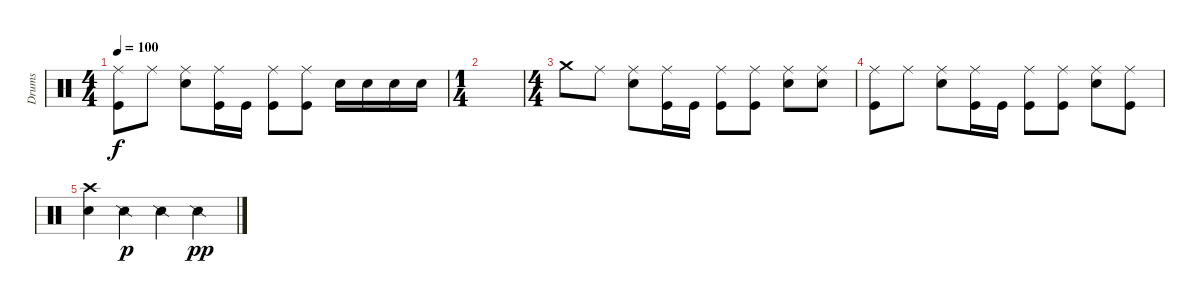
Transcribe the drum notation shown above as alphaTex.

\track ("Drums" "Drums") {instrument percussion}
\staff {score}
\articulation defaults
\ts (4 4)
\tempo 100
\clef neutral
\ks c
("Kick (hit)" "Ride (middle)").8{dy f} "Ride (middle)".8 ("Electric Snare (hit)" "Ride (middle)").8 ("Kick (hit)" "Ride (middle)").16 "Kick (hit)".16 ("Kick (hit)" "Ride (middle)").8 ("Kick (hit)" "Ride (middle)").8 "Electric Snare (hit)".16 "Electric Snare (hit)".16 "Electric Snare (hit)".16 "Electric Snare (hit)".16 |
\ts (1 4)
|
\ts (4 4)
"Crash medium (hit)".8 "Ride (middle)".8 ("Electric Snare (hit)" "Ride (middle)").8 ("Kick (hit)" "Ride (middle)").16 "Kick (hit)".16 ("Kick (hit)" "Ride (middle)").8 ("Kick (hit)" "Ride (middle)").8 ("Electric Snare (hit)" "Ride (middle)").8 ("Electric Snare (hit)" "Ride (middle)").8 |
("Kick (hit)" "Ride (middle)").8 "Ride (middle)".8 ("Electric Snare (hit)" "Ride (middle)").8 ("Kick (hit)" "Ride (middle)").16 "Kick (hit)".16 ("Kick (hit)" "Ride (middle)").8 ("Kick (hit)" "Ride (middle)").8 ("Electric Snare (hit)" "Ride (middle)").8 ("Kick (hit)" "Ride (middle)").8 |
("Electric Snare (hit)" "Crash high (hit)").4 "Snare (side stick) 2".4{dy p} "Snare (side stick) 2".4 "Snare (side stick) 2".4{dy pp}
